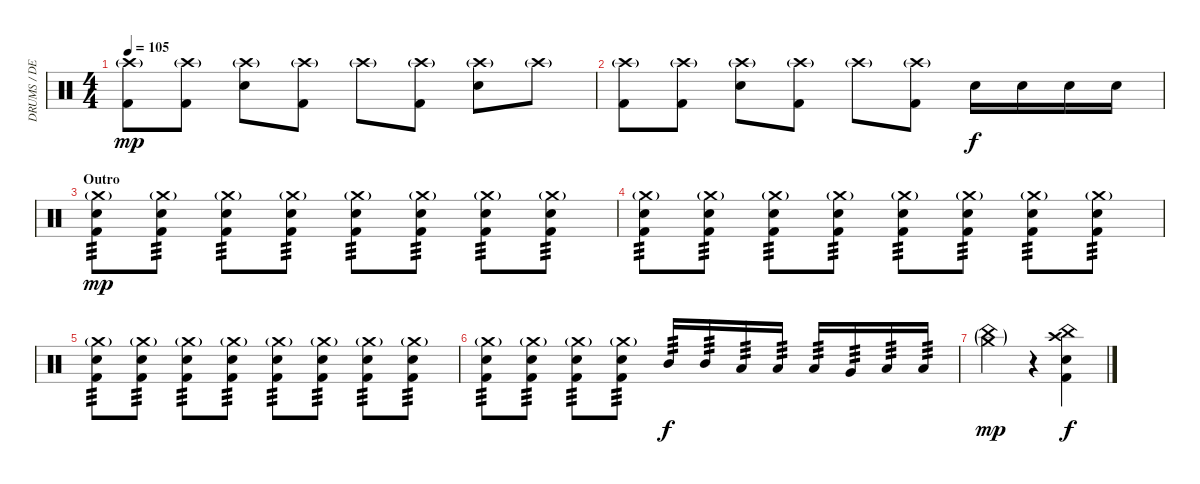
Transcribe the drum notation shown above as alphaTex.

\track ("DRUMS / DENNn!S" "DRUMS / DE") {instrument percussion}
\staff {score}
\articulation defaults
\ts (4 4)
\tempo 105
\clef neutral
\ks c
("Crash high (hit)"{g} "Kick (hit) 2").8{dy mp} ("Crash high (hit)"{g} "Kick (hit) 2").8 ("Crash high (hit)"{g} "Electric Snare (hit)").8 ("Crash high (hit)"{g} "Kick (hit) 2").8 "Crash high (hit)"{g}.8 ("Crash high (hit)"{g} "Kick (hit) 2").8 ("Crash high (hit)"{g} "Electric Snare (hit)").8 "Crash high (hit)"{g}.8 |
("Crash high (hit)"{g} "Kick (hit) 2").8 ("Crash high (hit)"{g} "Kick (hit) 2").8 ("Crash high (hit)"{g} "Electric Snare (hit)").8 ("Crash high (hit)"{g} "Kick (hit) 2").8 "Crash high (hit)"{g}.8 ("Crash high (hit)"{g} "Kick (hit) 2").8 "Electric Snare (hit)".16{dy f} "Electric Snare (hit)".16 "Electric Snare (hit)".16 "Electric Snare (hit)".16 |
\section ("" "Outro")
("Crash medium (hit)"{g} "Electric Snare (hit)" "Kick (hit) 2").8{tp 3 dy mp} ("Crash medium (hit)"{g} "Electric Snare (hit)" "Kick (hit) 2").8{tp 3} ("Crash medium (hit)"{g} "Kick (hit) 2" "Electric Snare (hit)").8{tp 3} ("Crash medium (hit)"{g} "Electric Snare (hit)" "Kick (hit) 2").8{tp 3} ("Crash medium (hit)"{g} "Electric Snare (hit)" "Kick (hit) 2").8{tp 3} ("Crash medium (hit)"{g} "Electric Snare (hit)" "Kick (hit) 2").8{tp 3} ("Crash medium (hit)"{g} "Kick (hit) 2" "Electric Snare (hit)").8{tp 3} ("Crash medium (hit)"{g} "Electric Snare (hit)" "Kick (hit) 2").8{tp 3} |
("Crash medium (hit)"{g} "Electric Snare (hit)" "Kick (hit) 2").8{tp 3} ("Crash medium (hit)"{g} "Electric Snare (hit)" "Kick (hit) 2").8{tp 3} ("Crash medium (hit)"{g} "Kick (hit) 2" "Electric Snare (hit)").8{tp 3} ("Crash medium (hit)"{g} "Electric Snare (hit)" "Kick (hit) 2").8{tp 3} ("Crash medium (hit)"{g} "Electric Snare (hit)" "Kick (hit) 2").8{tp 3} ("Crash medium (hit)"{g} "Electric Snare (hit)" "Kick (hit) 2").8{tp 3} ("Crash medium (hit)"{g} "Kick (hit) 2" "Electric Snare (hit)").8{tp 3} ("Crash medium (hit)"{g} "Electric Snare (hit)" "Kick (hit) 2").8{tp 3} |
("Crash medium (hit)"{g} "Electric Snare (hit)" "Kick (hit) 2").8{tp 3} ("Crash medium (hit)"{g} "Electric Snare (hit)" "Kick (hit) 2").8{tp 3} ("Crash medium (hit)"{g} "Kick (hit) 2" "Electric Snare (hit)").8{tp 3} ("Crash medium (hit)"{g} "Electric Snare (hit)" "Kick (hit) 2").8{tp 3} ("Crash medium (hit)"{g} "Electric Snare (hit)" "Kick (hit) 2").8{tp 3} ("Crash medium (hit)"{g} "Electric Snare (hit)" "Kick (hit) 2").8{tp 3} ("Crash medium (hit)"{g} "Kick (hit) 2" "Electric Snare (hit)").8{tp 3} ("Crash medium (hit)"{g} "Electric Snare (hit)" "Kick (hit) 2").8{tp 3} |
("Crash medium (hit)"{g} "Electric Snare (hit)" "Kick (hit) 2").8{tp 3} ("Crash medium (hit)"{g} "Electric Snare (hit)" "Kick (hit) 2").8{tp 3} ("Crash medium (hit)"{g} "Kick (hit) 2" "Electric Snare (hit)").8{tp 3} ("Crash medium (hit)"{g} "Electric Snare (hit)" "Kick (hit) 2").8{tp 3} "Mid Tom (hit)".16{tp 3 dy f} "Mid Tom (hit)".16{tp 3} "Low Tom (hit)".16{tp 3} "Low Tom (hit)".16{tp 3} "Low Tom (hit)".16{tp 3} "Very Low Tom (hit)".16{tp 3} "Low Floor Tom (hit)".16{tp 3} "Low Floor Tom (hit)".16{tp 3} |
("China (hit)"{g} "Crash medium (hit)"{g}).2{dy mp} r.4 ("China (hit)" "Kick (hit) 2"{pm} "Crash high (hit)"{pm} "Electric Snare (hit)"{pm}).4{dy f}
